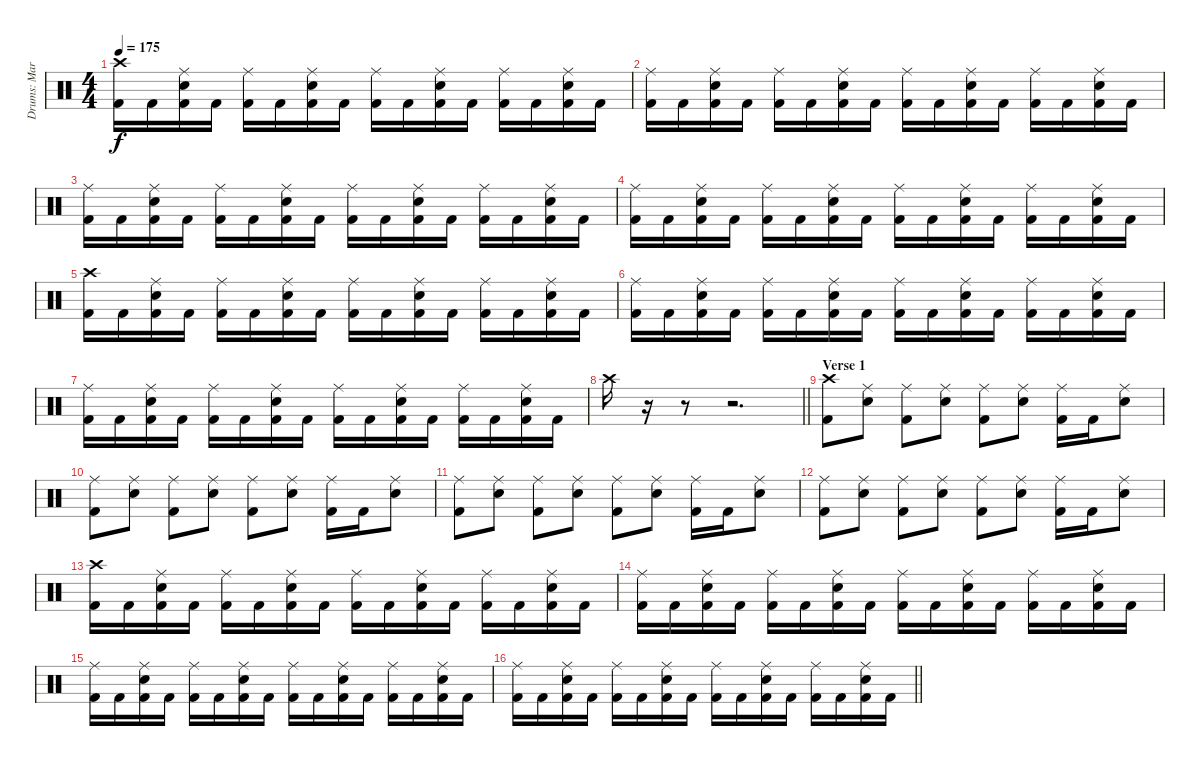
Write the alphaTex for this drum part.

\track ("Drums: Martin Herzinger" "Drums: Mar") {instrument percussion}
\staff {score}
\articulation defaults
\ts (4 4)
\tempo 175
\clef neutral
\ks aminor
("Crash high (hit)" "Kick (hit) 2").16{dy f} "Kick (hit) 2".16 ("Ride (middle)" "Snare (hit) 2" "Kick (hit) 2").16 "Kick (hit) 2".16 ("Ride (middle)" "Kick (hit) 2").16 "Kick (hit) 2".16 ("Ride (middle)" "Snare (hit) 2" "Kick (hit) 2").16 "Kick (hit) 2".16 ("Ride (middle)" "Kick (hit) 2").16 "Kick (hit) 2".16 ("Ride (middle)" "Snare (hit) 2" "Kick (hit) 2").16 "Kick (hit) 2".16 ("Ride (middle)" "Kick (hit) 2").16 "Kick (hit) 2".16 ("Ride (middle)" "Snare (hit) 2" "Kick (hit) 2").16 "Kick (hit) 2".16 |
("Ride (middle)" "Kick (hit) 2").16 "Kick (hit) 2".16 ("Ride (middle)" "Snare (hit) 2" "Kick (hit) 2").16 "Kick (hit) 2".16 ("Ride (middle)" "Kick (hit) 2").16 "Kick (hit) 2".16 ("Ride (middle)" "Snare (hit) 2" "Kick (hit) 2").16 "Kick (hit) 2".16 ("Ride (middle)" "Kick (hit) 2").16 "Kick (hit) 2".16 ("Ride (middle)" "Snare (hit) 2" "Kick (hit) 2").16 "Kick (hit) 2".16 ("Ride (middle)" "Kick (hit) 2").16 "Kick (hit) 2".16 ("Ride (middle)" "Snare (hit) 2" "Kick (hit) 2").16 "Kick (hit) 2".16 |
("Ride (middle)" "Kick (hit) 2").16 "Kick (hit) 2".16 ("Ride (middle)" "Snare (hit) 2" "Kick (hit) 2").16 "Kick (hit) 2".16 ("Ride (middle)" "Kick (hit) 2").16 "Kick (hit) 2".16 ("Ride (middle)" "Snare (hit) 2" "Kick (hit) 2").16 "Kick (hit) 2".16 ("Ride (middle)" "Kick (hit) 2").16 "Kick (hit) 2".16 ("Ride (middle)" "Snare (hit) 2" "Kick (hit) 2").16 "Kick (hit) 2".16 ("Ride (middle)" "Kick (hit) 2").16 "Kick (hit) 2".16 ("Ride (middle)" "Snare (hit) 2" "Kick (hit) 2").16 "Kick (hit) 2".16 |
("Ride (middle)" "Kick (hit) 2").16 "Kick (hit) 2".16 ("Ride (middle)" "Snare (hit) 2" "Kick (hit) 2").16 "Kick (hit) 2".16 ("Ride (middle)" "Kick (hit) 2").16 "Kick (hit) 2".16 ("Ride (middle)" "Snare (hit) 2" "Kick (hit) 2").16 "Kick (hit) 2".16 ("Ride (middle)" "Kick (hit) 2").16 "Kick (hit) 2".16 ("Ride (middle)" "Snare (hit) 2" "Kick (hit) 2").16 "Kick (hit) 2".16 ("Ride (middle)" "Kick (hit) 2").16 "Kick (hit) 2".16 ("Ride (middle)" "Snare (hit) 2" "Kick (hit) 2").16 "Kick (hit) 2".16 |
("Crash high (hit)" "Kick (hit) 2").16 "Kick (hit) 2".16 ("Ride (middle)" "Snare (hit) 2" "Kick (hit) 2").16 "Kick (hit) 2".16 ("Ride (middle)" "Kick (hit) 2").16 "Kick (hit) 2".16 ("Ride (middle)" "Snare (hit) 2" "Kick (hit) 2").16 "Kick (hit) 2".16 ("Ride (middle)" "Kick (hit) 2").16 "Kick (hit) 2".16 ("Ride (middle)" "Snare (hit) 2" "Kick (hit) 2").16 "Kick (hit) 2".16 ("Ride (middle)" "Kick (hit) 2").16 "Kick (hit) 2".16 ("Ride (middle)" "Snare (hit) 2" "Kick (hit) 2").16 "Kick (hit) 2".16 |
("Ride (middle)" "Kick (hit) 2").16 "Kick (hit) 2".16 ("Ride (middle)" "Snare (hit) 2" "Kick (hit) 2").16 "Kick (hit) 2".16 ("Ride (middle)" "Kick (hit) 2").16 "Kick (hit) 2".16 ("Ride (middle)" "Snare (hit) 2" "Kick (hit) 2").16 "Kick (hit) 2".16 ("Ride (middle)" "Kick (hit) 2").16 "Kick (hit) 2".16 ("Ride (middle)" "Snare (hit) 2" "Kick (hit) 2").16 "Kick (hit) 2".16 ("Ride (middle)" "Kick (hit) 2").16 "Kick (hit) 2".16 ("Ride (middle)" "Snare (hit) 2" "Kick (hit) 2").16 "Kick (hit) 2".16 |
("Ride (middle)" "Kick (hit) 2").16 "Kick (hit) 2".16 ("Ride (middle)" "Snare (hit) 2" "Kick (hit) 2").16 "Kick (hit) 2".16 ("Ride (middle)" "Kick (hit) 2").16 "Kick (hit) 2".16 ("Ride (middle)" "Snare (hit) 2" "Kick (hit) 2").16 "Kick (hit) 2".16 ("Ride (middle)" "Kick (hit) 2").16 "Kick (hit) 2".16 ("Ride (middle)" "Snare (hit) 2" "Kick (hit) 2").16 "Kick (hit) 2".16 ("Ride (middle)" "Kick (hit) 2").16 "Kick (hit) 2".16 ("Ride (middle)" "Snare (hit) 2" "Kick (hit) 2").16 "Kick (hit) 2".16 |
\barLineRight lightlight "Crash high (hit)".16
r.16 r.8 r.2{d} |
\section ("" "Verse 1")
("Crash high (hit)" "Kick (hit) 2").8 ("Ride (middle)" "Snare (hit) 2").8 ("Ride (middle)" "Kick (hit) 2").8 ("Ride (middle)" "Snare (hit) 2").8 ("Ride (middle)" "Kick (hit) 2").8 ("Ride (middle)" "Snare (hit) 2").8 ("Ride (middle)" "Kick (hit) 2").16 "Kick (hit) 2".16 ("Ride (middle)" "Snare (hit) 2").8 |
("Ride (middle)" "Kick (hit) 2").8 ("Ride (middle)" "Snare (hit) 2").8 ("Ride (middle)" "Kick (hit) 2").8 ("Ride (middle)" "Snare (hit) 2").8 ("Ride (middle)" "Kick (hit) 2").8 ("Ride (middle)" "Snare (hit) 2").8 ("Ride (middle)" "Kick (hit) 2").16 "Kick (hit) 2".16 ("Ride (middle)" "Snare (hit) 2").8 |
("Ride (middle)" "Kick (hit) 2").8 ("Ride (middle)" "Snare (hit) 2").8 ("Ride (middle)" "Kick (hit) 2").8 ("Ride (middle)" "Snare (hit) 2").8 ("Ride (middle)" "Kick (hit) 2").8 ("Ride (middle)" "Snare (hit) 2").8 ("Ride (middle)" "Kick (hit) 2").16 "Kick (hit) 2".16 ("Ride (middle)" "Snare (hit) 2").8 |
("Ride (middle)" "Kick (hit) 2").8 ("Ride (middle)" "Snare (hit) 2").8 ("Ride (middle)" "Kick (hit) 2").8 ("Ride (middle)" "Snare (hit) 2").8 ("Ride (middle)" "Kick (hit) 2").8 ("Ride (middle)" "Snare (hit) 2").8 ("Ride (middle)" "Kick (hit) 2").16 "Kick (hit) 2".16 ("Ride (middle)" "Snare (hit) 2").8 |
("Crash high (hit)" "Kick (hit) 2").16 "Kick (hit) 2".16 ("Ride (middle)" "Snare (hit) 2" "Kick (hit) 2").16 "Kick (hit) 2".16 ("Ride (middle)" "Kick (hit) 2").16 "Kick (hit) 2".16 ("Ride (middle)" "Snare (hit) 2" "Kick (hit) 2").16 "Kick (hit) 2".16 ("Ride (middle)" "Kick (hit) 2").16 "Kick (hit) 2".16 ("Ride (middle)" "Snare (hit) 2" "Kick (hit) 2").16 "Kick (hit) 2".16 ("Ride (middle)" "Kick (hit) 2").16 "Kick (hit) 2".16 ("Ride (middle)" "Snare (hit) 2" "Kick (hit) 2").16 "Kick (hit) 2".16 |
("Ride (middle)" "Kick (hit) 2").16 "Kick (hit) 2".16 ("Ride (middle)" "Snare (hit) 2" "Kick (hit) 2").16 "Kick (hit) 2".16 ("Ride (middle)" "Kick (hit) 2").16 "Kick (hit) 2".16 ("Ride (middle)" "Snare (hit) 2" "Kick (hit) 2").16 "Kick (hit) 2".16 ("Ride (middle)" "Kick (hit) 2").16 "Kick (hit) 2".16 ("Ride (middle)" "Snare (hit) 2" "Kick (hit) 2").16 "Kick (hit) 2".16 ("Ride (middle)" "Kick (hit) 2").16 "Kick (hit) 2".16 ("Ride (middle)" "Snare (hit) 2" "Kick (hit) 2").16 "Kick (hit) 2".16 |
("Ride (middle)" "Kick (hit) 2").16 "Kick (hit) 2".16 ("Ride (middle)" "Snare (hit) 2" "Kick (hit) 2").16 "Kick (hit) 2".16 ("Ride (middle)" "Kick (hit) 2").16 "Kick (hit) 2".16 ("Ride (middle)" "Snare (hit) 2" "Kick (hit) 2").16 "Kick (hit) 2".16 ("Ride (middle)" "Kick (hit) 2").16 "Kick (hit) 2".16 ("Ride (middle)" "Snare (hit) 2" "Kick (hit) 2").16 "Kick (hit) 2".16 ("Ride (middle)" "Kick (hit) 2").16 "Kick (hit) 2".16 ("Ride (middle)" "Snare (hit) 2" "Kick (hit) 2").16 "Kick (hit) 2".16 |
\barLineRight lightlight
("Ride (middle)" "Kick (hit) 2").16 "Kick (hit) 2".16 ("Ride (middle)" "Snare (hit) 2" "Kick (hit) 2").16 "Kick (hit) 2".16 ("Ride (middle)" "Kick (hit) 2").16 "Kick (hit) 2".16 ("Ride (middle)" "Snare (hit) 2" "Kick (hit) 2").16 "Kick (hit) 2".16 ("Ride (middle)" "Kick (hit) 2").16 "Kick (hit) 2".16 ("Ride (middle)" "Snare (hit) 2" "Kick (hit) 2").16 "Kick (hit) 2".16 ("Ride (middle)" "Kick (hit) 2").16 "Kick (hit) 2".16 ("Ride (middle)" "Snare (hit) 2" "Kick (hit) 2").16 "Kick (hit) 2".16
